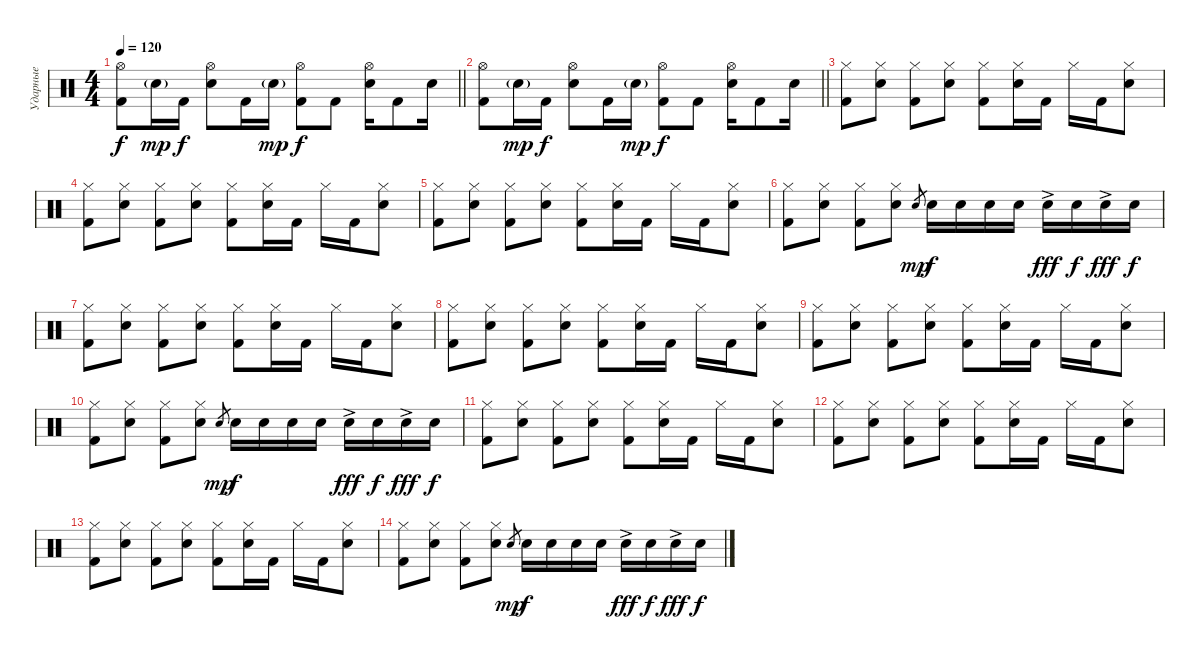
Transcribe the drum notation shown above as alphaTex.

\track ("Ударные" "Ударные") {instrument percussion}
\staff {score}
\articulation defaults
\ts (4 4)
\tempo 120
\clef neutral
\barLineRight lightlight
\ks c
("Hi-Hat (open)" "Kick (hit) 2").8{dy f} "Snare (hit) 2"{g}.16{dy mp} "Kick (hit) 2".16{dy f} ("Hi-Hat (open)" "Snare (hit) 2").8 "Kick (hit) 2".16 "Snare (hit) 2"{g}.16{dy mp} ("Hi-Hat (open)" "Kick (hit) 2").8{dy f} "Kick (hit) 2".8 ("Hi-Hat (open)" "Snare (hit) 2").16 "Kick (hit) 2".8 "Snare (hit) 2".16 |
\barLineRight lightlight
("Hi-Hat (open)" "Kick (hit) 2").8 "Snare (hit) 2"{g}.16{dy mp} "Kick (hit) 2".16{dy f} ("Hi-Hat (open)" "Snare (hit) 2").8 "Kick (hit) 2".16 "Snare (hit) 2"{g}.16{dy mp} ("Hi-Hat (open)" "Kick (hit) 2").8{dy f} "Kick (hit) 2".8 ("Hi-Hat (open)" "Snare (hit) 2").16 "Kick (hit) 2".8 "Snare (hit) 2".16 |
("Hi-Hat (closed)" "Kick (hit) 2").8 ("Hi-Hat (closed)" "Snare (hit) 2").8 ("Hi-Hat (closed)" "Kick (hit) 2").8 ("Hi-Hat (closed)" "Snare (hit) 2").8 ("Hi-Hat (closed)" "Kick (hit) 2").8 ("Hi-Hat (closed)" "Snare (hit) 2").16 "Kick (hit) 2".16 "Hi-Hat (closed)".16 "Kick (hit) 2".16 ("Hi-Hat (closed)" "Snare (hit) 2").8 |
("Hi-Hat (closed)" "Kick (hit) 2").8 ("Hi-Hat (closed)" "Snare (hit) 2").8 ("Hi-Hat (closed)" "Kick (hit) 2").8 ("Hi-Hat (closed)" "Snare (hit) 2").8 ("Hi-Hat (closed)" "Kick (hit) 2").8 ("Hi-Hat (closed)" "Snare (hit) 2").16 "Kick (hit) 2".16 "Hi-Hat (closed)".16 "Kick (hit) 2".16 ("Hi-Hat (closed)" "Snare (hit) 2").8 |
("Hi-Hat (closed)" "Kick (hit) 2").8 ("Hi-Hat (closed)" "Snare (hit) 2").8 ("Hi-Hat (closed)" "Kick (hit) 2").8 ("Hi-Hat (closed)" "Snare (hit) 2").8 ("Hi-Hat (closed)" "Kick (hit) 2").8 ("Hi-Hat (closed)" "Snare (hit) 2").16 "Kick (hit) 2".16 "Hi-Hat (closed)".16 "Kick (hit) 2".16 ("Hi-Hat (closed)" "Snare (hit) 2").8 |
("Hi-Hat (closed)" "Kick (hit) 2").8 ("Hi-Hat (closed)" "Snare (hit) 2").8 ("Hi-Hat (closed)" "Kick (hit) 2").8 ("Hi-Hat (closed)" "Snare (hit) 2").8 "Snare (hit) 2".8{gr dy mp} "Snare (hit) 2".16{dy f} "Snare (hit) 2".16 "Snare (hit) 2".16 "Snare (hit) 2".16 "Snare (hit) 2"{ac}.16{dy fff} "Snare (hit) 2".16{dy f} "Snare (hit) 2"{ac}.16{dy fff} "Snare (hit) 2".16{dy f} |
("Hi-Hat (closed)" "Kick (hit) 2").8 ("Hi-Hat (closed)" "Snare (hit) 2").8 ("Hi-Hat (closed)" "Kick (hit) 2").8 ("Hi-Hat (closed)" "Snare (hit) 2").8 ("Hi-Hat (closed)" "Kick (hit) 2").8 ("Hi-Hat (closed)" "Snare (hit) 2").16 "Kick (hit) 2".16 "Hi-Hat (closed)".16 "Kick (hit) 2".16 ("Hi-Hat (closed)" "Snare (hit) 2").8 |
("Hi-Hat (closed)" "Kick (hit) 2").8 ("Hi-Hat (closed)" "Snare (hit) 2").8 ("Hi-Hat (closed)" "Kick (hit) 2").8 ("Hi-Hat (closed)" "Snare (hit) 2").8 ("Hi-Hat (closed)" "Kick (hit) 2").8 ("Hi-Hat (closed)" "Snare (hit) 2").16 "Kick (hit) 2".16 "Hi-Hat (closed)".16 "Kick (hit) 2".16 ("Hi-Hat (closed)" "Snare (hit) 2").8 |
("Hi-Hat (closed)" "Kick (hit) 2").8 ("Hi-Hat (closed)" "Snare (hit) 2").8 ("Hi-Hat (closed)" "Kick (hit) 2").8 ("Hi-Hat (closed)" "Snare (hit) 2").8 ("Hi-Hat (closed)" "Kick (hit) 2").8 ("Hi-Hat (closed)" "Snare (hit) 2").16 "Kick (hit) 2".16 "Hi-Hat (closed)".16 "Kick (hit) 2".16 ("Hi-Hat (closed)" "Snare (hit) 2").8 |
("Hi-Hat (closed)" "Kick (hit) 2").8 ("Hi-Hat (closed)" "Snare (hit) 2").8 ("Hi-Hat (closed)" "Kick (hit) 2").8 ("Hi-Hat (closed)" "Snare (hit) 2").8 "Snare (hit) 2".8{gr dy mp} "Snare (hit) 2".16{dy f} "Snare (hit) 2".16 "Snare (hit) 2".16 "Snare (hit) 2".16 "Snare (hit) 2"{ac}.16{dy fff} "Snare (hit) 2".16{dy f} "Snare (hit) 2"{ac}.16{dy fff} "Snare (hit) 2".16{dy f} |
("Hi-Hat (closed)" "Kick (hit) 2").8 ("Hi-Hat (closed)" "Snare (hit) 2").8 ("Hi-Hat (closed)" "Kick (hit) 2").8 ("Hi-Hat (closed)" "Snare (hit) 2").8 ("Hi-Hat (closed)" "Kick (hit) 2").8 ("Hi-Hat (closed)" "Snare (hit) 2").16 "Kick (hit) 2".16 "Hi-Hat (closed)".16 "Kick (hit) 2".16 ("Hi-Hat (closed)" "Snare (hit) 2").8 |
("Hi-Hat (closed)" "Kick (hit) 2").8 ("Hi-Hat (closed)" "Snare (hit) 2").8 ("Hi-Hat (closed)" "Kick (hit) 2").8 ("Hi-Hat (closed)" "Snare (hit) 2").8 ("Hi-Hat (closed)" "Kick (hit) 2").8 ("Hi-Hat (closed)" "Snare (hit) 2").16 "Kick (hit) 2".16 "Hi-Hat (closed)".16 "Kick (hit) 2".16 ("Hi-Hat (closed)" "Snare (hit) 2").8 |
("Hi-Hat (closed)" "Kick (hit) 2").8 ("Hi-Hat (closed)" "Snare (hit) 2").8 ("Hi-Hat (closed)" "Kick (hit) 2").8 ("Hi-Hat (closed)" "Snare (hit) 2").8 ("Hi-Hat (closed)" "Kick (hit) 2").8 ("Hi-Hat (closed)" "Snare (hit) 2").16 "Kick (hit) 2".16 "Hi-Hat (closed)".16 "Kick (hit) 2".16 ("Hi-Hat (closed)" "Snare (hit) 2").8 |
("Hi-Hat (closed)" "Kick (hit) 2").8 ("Hi-Hat (closed)" "Snare (hit) 2").8 ("Hi-Hat (closed)" "Kick (hit) 2").8 ("Hi-Hat (closed)" "Snare (hit) 2").8 "Snare (hit) 2".8{gr dy mp} "Snare (hit) 2".16{dy f} "Snare (hit) 2".16 "Snare (hit) 2".16 "Snare (hit) 2".16 "Snare (hit) 2"{ac}.16{dy fff} "Snare (hit) 2".16{dy f} "Snare (hit) 2"{ac}.16{dy fff} "Snare (hit) 2".16{dy f}
